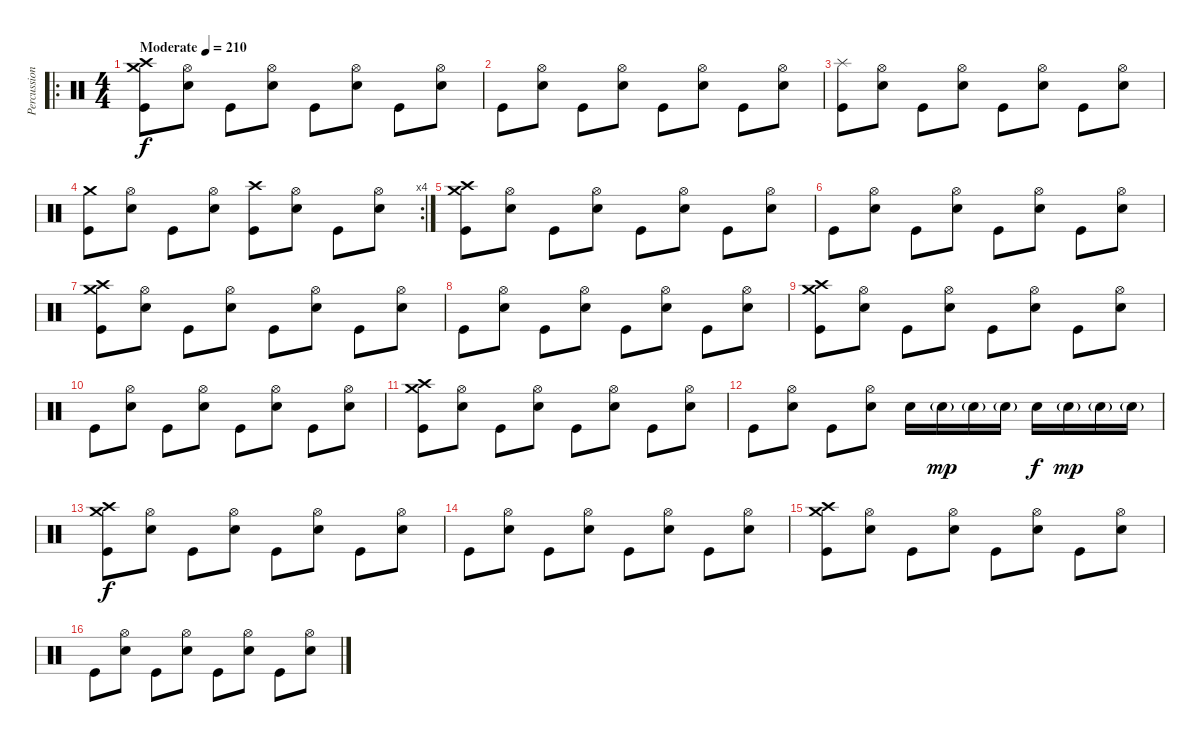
\track ("Percussion" "Percussion") {instrument percussion}
\staff {score}
\articulation defaults
\ro
\ts (4 4)
\tempo (210 "Moderate")
\clef neutral
\ks c
("Crash medium (hit)" "Crash high (hit)" "Kick (hit)").8{dy f} ("Hi-Hat (open)" "Electric Snare (hit)").8 "Kick (hit)".8 ("Hi-Hat (open)" "Electric Snare (hit)").8 "Kick (hit)".8 ("Hi-Hat (open)" "Electric Snare (hit)").8 "Kick (hit)".8 ("Hi-Hat (open)" "Electric Snare (hit)").8 |
"Kick (hit)".8 ("Hi-Hat (open)" "Electric Snare (hit)").8 "Kick (hit)".8 ("Hi-Hat (open)" "Electric Snare (hit)").8 "Kick (hit)".8 ("Hi-Hat (open)" "Electric Snare (hit)").8 "Kick (hit)".8 ("Hi-Hat (open)" "Electric Snare (hit)").8 |
("Splash (hit)" "Kick (hit)").8 ("Hi-Hat (open)" "Electric Snare (hit)").8 "Kick (hit)".8 ("Hi-Hat (open)" "Electric Snare (hit)").8 "Kick (hit)".8 ("Hi-Hat (open)" "Electric Snare (hit)").8 "Kick (hit)".8 ("Hi-Hat (open)" "Electric Snare (hit)").8 |
\rc 4
("Crash medium (hit)" "Kick (hit)").8 ("Hi-Hat (open)" "Electric Snare (hit)").8 "Kick (hit)".8 ("Hi-Hat (open)" "Electric Snare (hit)").8 ("Crash high (hit)" "Kick (hit)").8 ("Hi-Hat (open)" "Electric Snare (hit)").8 "Kick (hit)".8 ("Hi-Hat (open)" "Electric Snare (hit)").8 |
("Crash medium (hit)" "Crash high (hit)" "Kick (hit)").8 ("Hi-Hat (open)" "Electric Snare (hit)").8 "Kick (hit)".8 ("Hi-Hat (open)" "Electric Snare (hit)").8 "Kick (hit)".8 ("Hi-Hat (open)" "Electric Snare (hit)").8 "Kick (hit)".8 ("Hi-Hat (open)" "Electric Snare (hit)").8 |
"Kick (hit)".8 ("Hi-Hat (open)" "Electric Snare (hit)").8 "Kick (hit)".8 ("Hi-Hat (open)" "Electric Snare (hit)").8 "Kick (hit)".8 ("Hi-Hat (open)" "Electric Snare (hit)").8 "Kick (hit)".8 ("Hi-Hat (open)" "Electric Snare (hit)").8 |
("Crash medium (hit)" "Crash high (hit)" "Kick (hit)").8 ("Hi-Hat (open)" "Electric Snare (hit)").8 "Kick (hit)".8 ("Hi-Hat (open)" "Electric Snare (hit)").8 "Kick (hit)".8 ("Hi-Hat (open)" "Electric Snare (hit)").8 "Kick (hit)".8 ("Hi-Hat (open)" "Electric Snare (hit)").8 |
"Kick (hit)".8 ("Hi-Hat (open)" "Electric Snare (hit)").8 "Kick (hit)".8 ("Hi-Hat (open)" "Electric Snare (hit)").8 "Kick (hit)".8 ("Hi-Hat (open)" "Electric Snare (hit)").8 "Kick (hit)".8 ("Hi-Hat (open)" "Electric Snare (hit)").8 |
("Crash medium (hit)" "Crash high (hit)" "Kick (hit)").8 ("Hi-Hat (open)" "Electric Snare (hit)").8 "Kick (hit)".8 ("Hi-Hat (open)" "Electric Snare (hit)").8 "Kick (hit)".8 ("Hi-Hat (open)" "Electric Snare (hit)").8 "Kick (hit)".8 ("Hi-Hat (open)" "Electric Snare (hit)").8 |
"Kick (hit)".8 ("Hi-Hat (open)" "Electric Snare (hit)").8 "Kick (hit)".8 ("Hi-Hat (open)" "Electric Snare (hit)").8 "Kick (hit)".8 ("Hi-Hat (open)" "Electric Snare (hit)").8 "Kick (hit)".8 ("Hi-Hat (open)" "Electric Snare (hit)").8 |
("Crash medium (hit)" "Crash high (hit)" "Kick (hit)").8 ("Hi-Hat (open)" "Electric Snare (hit)").8 "Kick (hit)".8 ("Hi-Hat (open)" "Electric Snare (hit)").8 "Kick (hit)".8 ("Hi-Hat (open)" "Electric Snare (hit)").8 "Kick (hit)".8 ("Hi-Hat (open)" "Electric Snare (hit)").8 |
"Kick (hit)".8 ("Hi-Hat (open)" "Electric Snare (hit)").8 "Kick (hit)".8 ("Hi-Hat (open)" "Electric Snare (hit)").8 "Electric Snare (hit)".16 "Electric Snare (hit)"{g}.16{dy mp} "Electric Snare (hit)"{g}.16 "Electric Snare (hit)"{g}.16 "Electric Snare (hit)".16{dy f} "Electric Snare (hit)"{g}.16{dy mp} "Electric Snare (hit)"{g}.16 "Electric Snare (hit)"{g}.16 |
("Crash medium (hit)" "Crash high (hit)" "Kick (hit)").8{dy f} ("Hi-Hat (open)" "Electric Snare (hit)").8 "Kick (hit)".8 ("Hi-Hat (open)" "Electric Snare (hit)").8 "Kick (hit)".8 ("Hi-Hat (open)" "Electric Snare (hit)").8 "Kick (hit)".8 ("Hi-Hat (open)" "Electric Snare (hit)").8 |
"Kick (hit)".8 ("Hi-Hat (open)" "Electric Snare (hit)").8 "Kick (hit)".8 ("Hi-Hat (open)" "Electric Snare (hit)").8 "Kick (hit)".8 ("Hi-Hat (open)" "Electric Snare (hit)").8 "Kick (hit)".8 ("Hi-Hat (open)" "Electric Snare (hit)").8 |
("Crash medium (hit)" "Crash high (hit)" "Kick (hit)").8 ("Hi-Hat (open)" "Electric Snare (hit)").8 "Kick (hit)".8 ("Hi-Hat (open)" "Electric Snare (hit)").8 "Kick (hit)".8 ("Hi-Hat (open)" "Electric Snare (hit)").8 "Kick (hit)".8 ("Hi-Hat (open)" "Electric Snare (hit)").8 |
"Kick (hit)".8 ("Hi-Hat (open)" "Electric Snare (hit)").8 "Kick (hit)".8 ("Hi-Hat (open)" "Electric Snare (hit)").8 "Kick (hit)".8 ("Hi-Hat (open)" "Electric Snare (hit)").8 "Kick (hit)".8 ("Hi-Hat (open)" "Electric Snare (hit)").8
